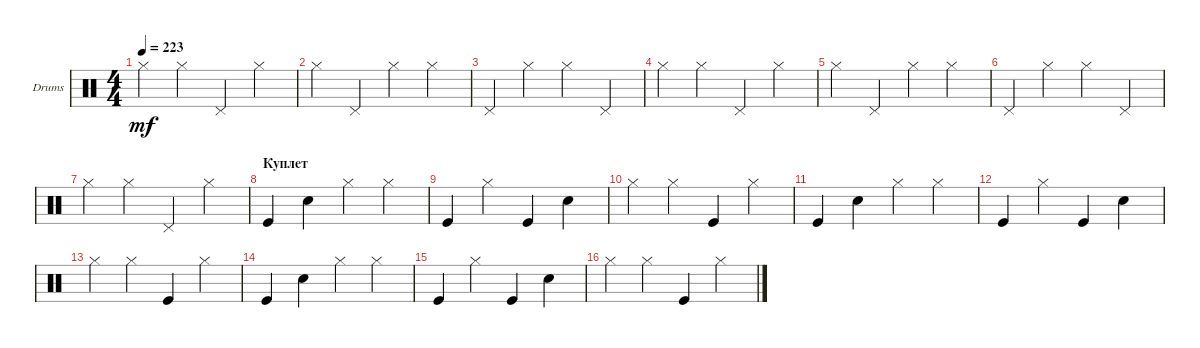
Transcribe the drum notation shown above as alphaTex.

\defaultSystemsLayout 4
\bracketExtendMode groupsimilarinstruments
\firstSystemTrackNameOrientation horizontal
\otherSystemsTrackNameOrientation horizontal
\track ("Drumkit" "Drums") {instrument percussion}
\staff {score}
\articulation defaults
\ts (4 4)
\tempo 223
\clef neutral
\ks c "Hi-Hat (closed)".4{dy mf} "Hi-Hat (closed)".4 "Pedal Hi-Hat (hit)".4 "Hi-Hat (closed)".4
|
"Hi-Hat (closed)".4 "Pedal Hi-Hat (hit)".4 "Hi-Hat (closed)".4 "Hi-Hat (closed)".4 |
"Pedal Hi-Hat (hit)".4 "Hi-Hat (closed)".4 "Hi-Hat (closed)".4 "Pedal Hi-Hat (hit)".4 |
"Hi-Hat (closed)".4 "Hi-Hat (closed)".4 "Pedal Hi-Hat (hit)".4 "Hi-Hat (closed)".4 |
"Hi-Hat (closed)".4 "Pedal Hi-Hat (hit)".4 "Hi-Hat (closed)".4 "Hi-Hat (closed)".4 |
"Pedal Hi-Hat (hit)".4 "Hi-Hat (closed)".4 "Hi-Hat (closed)".4 "Pedal Hi-Hat (hit)".4 |
"Hi-Hat (closed)".4 "Hi-Hat (closed)".4 "Pedal Hi-Hat (hit)".4 "Hi-Hat (closed)".4 |
\section ("" "Куплет")
"Kick (hit)".4 "Snare (hit) 2".4 "Hi-Hat (closed)".4 "Hi-Hat (closed)".4 |
"Kick (hit)".4 "Hi-Hat (closed)".4 "Kick (hit)".4 "Snare (hit) 2".4 |
"Hi-Hat (closed)".4 "Hi-Hat (closed)".4 "Kick (hit)".4 "Hi-Hat (closed)".4 |
"Kick (hit)".4 "Snare (hit) 2".4 "Hi-Hat (closed)".4 "Hi-Hat (closed)".4 |
"Kick (hit)".4 "Hi-Hat (closed)".4 "Kick (hit)".4 "Snare (hit) 2".4 |
"Hi-Hat (closed)".4 "Hi-Hat (closed)".4 "Kick (hit)".4 "Hi-Hat (closed)".4 |
"Kick (hit)".4 "Snare (hit) 2".4 "Hi-Hat (closed)".4 "Hi-Hat (closed)".4 |
"Kick (hit)".4 "Hi-Hat (closed)".4 "Kick (hit)".4 "Snare (hit) 2".4 |
"Hi-Hat (closed)".4 "Hi-Hat (closed)".4 "Kick (hit)".4 "Hi-Hat (closed)".4
